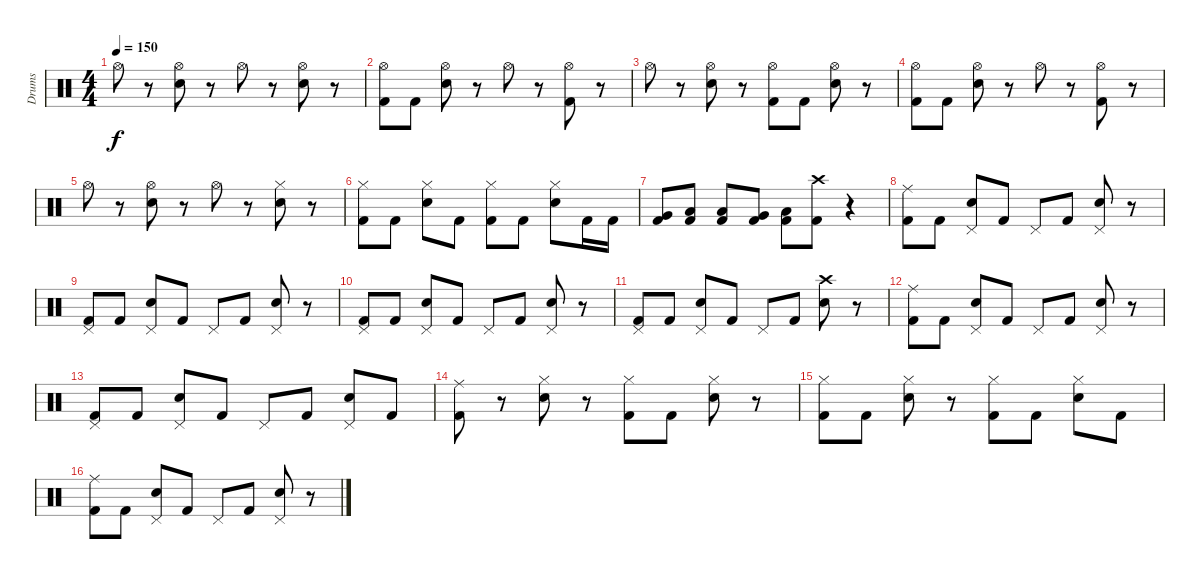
\track ("Drums" "Drums") {instrument percussion}
\staff {score}
\articulation defaults
\ts (4 4)
\tempo 150
\clef neutral
\ks c "Hi-Hat (open)".8{dy f}
r.8 ("Hi-Hat (open)" "Electric Snare (hit)").8 r.8 "Hi-Hat (open)".8 r.8 ("Hi-Hat (open)" "Electric Snare (hit)").8 r.8 |
("Hi-Hat (open)" "Kick (hit) 2").8 "Kick (hit) 2".8 ("Hi-Hat (open)" "Electric Snare (hit)").8 r.8 "Hi-Hat (open)".8 r.8 ("Hi-Hat (open)" "Kick (hit) 2").8 r.8 |
"Hi-Hat (open)".8 r.8 ("Hi-Hat (open)" "Electric Snare (hit)").8 r.8 ("Hi-Hat (open)" "Kick (hit) 2").8 "Kick (hit) 2".8 ("Hi-Hat (open)" "Electric Snare (hit)").8 r.8 |
("Hi-Hat (open)" "Kick (hit) 2").8 "Kick (hit) 2".8 ("Hi-Hat (open)" "Electric Snare (hit)").8 r.8 "Hi-Hat (open)".8 r.8 ("Hi-Hat (open)" "Kick (hit) 2").8 r.8 |
"Hi-Hat (open)".8 r.8 ("Hi-Hat (open)" "Electric Snare (hit)").8 r.8 "Hi-Hat (open)".8 r.8 ("Hi-Hat (closed)" "Electric Snare (hit)").8 r.8 |
("Hi-Hat (closed)" "Kick (hit) 2").8 "Kick (hit) 2".8 ("Hi-Hat (closed)" "Electric Snare (hit)").8 "Kick (hit) 2".8 ("Hi-Hat (closed)" "Kick (hit) 2").8 "Kick (hit) 2".8 ("Hi-Hat (closed)" "Electric Snare (hit)").8 "Kick (hit) 2".16 "Kick (hit) 2".16 |
("Very Low Tom (hit)" "Kick (hit) 2").8 ("Low Floor Tom (hit)" "Kick (hit) 2").8 ("Low Floor Tom (hit)" "Kick (hit) 2").8 ("Very Low Tom (hit)" "Kick (hit) 2").8 ("Low Floor Tom (hit)" "Kick (hit) 2").8 ("Crash high (hit)" "Kick (hit) 2").8 r.4 |
("Ride (middle)" "Kick (hit) 2").8 "Kick (hit) 2".8 ("Pedal Hi-Hat (hit)" "Electric Snare (hit)").8 "Kick (hit) 2".8 "Pedal Hi-Hat (hit)".8 "Kick (hit) 2".8 ("Pedal Hi-Hat (hit)" "Electric Snare (hit)").8 r.8 |
("Pedal Hi-Hat (hit)" "Kick (hit) 2").8 "Kick (hit) 2".8 ("Pedal Hi-Hat (hit)" "Electric Snare (hit)").8 "Kick (hit) 2".8 "Pedal Hi-Hat (hit)".8 "Kick (hit) 2".8 ("Pedal Hi-Hat (hit)" "Electric Snare (hit)").8 r.8 |
("Pedal Hi-Hat (hit)" "Kick (hit) 2").8 "Kick (hit) 2".8 ("Pedal Hi-Hat (hit)" "Electric Snare (hit)").8 "Kick (hit) 2".8 "Pedal Hi-Hat (hit)".8 "Kick (hit) 2".8 ("Pedal Hi-Hat (hit)" "Electric Snare (hit)").8 r.8 |
("Pedal Hi-Hat (hit)" "Kick (hit) 2").8 "Kick (hit) 2".8 ("Pedal Hi-Hat (hit)" "Electric Snare (hit)").8 "Kick (hit) 2".8 "Pedal Hi-Hat (hit)".8 "Kick (hit) 2".8 ("Crash high (hit)" "Electric Snare (hit)").8 r.8 |
("Ride (middle)" "Kick (hit) 2").8 "Kick (hit) 2".8 ("Pedal Hi-Hat (hit)" "Electric Snare (hit)").8 "Kick (hit) 2".8 "Pedal Hi-Hat (hit)".8 "Kick (hit) 2".8 ("Pedal Hi-Hat (hit)" "Electric Snare (hit)").8 r.8 |
("Pedal Hi-Hat (hit)" "Kick (hit) 2").8 "Kick (hit) 2".8 ("Pedal Hi-Hat (hit)" "Electric Snare (hit)").8 "Kick (hit) 2".8 "Pedal Hi-Hat (hit)".8 "Kick (hit) 2".8 ("Pedal Hi-Hat (hit)" "Electric Snare (hit)").8 "Kick (hit) 2".8 |
("Ride (middle)" "Kick (hit) 2").8 r.8 ("Hi-Hat (closed)" "Electric Snare (hit)").8 r.8 ("Hi-Hat (closed)" "Kick (hit) 2").8 "Kick (hit) 2".8 ("Hi-Hat (closed)" "Electric Snare (hit)").8 r.8 |
("Hi-Hat (closed)" "Kick (hit) 2").8 "Kick (hit) 2".8 ("Hi-Hat (closed)" "Electric Snare (hit)").8 r.8 ("Hi-Hat (closed)" "Kick (hit) 2").8 "Kick (hit) 2".8 ("Hi-Hat (closed)" "Electric Snare (hit)").8 "Kick (hit) 2".8 |
("Ride (middle)" "Kick (hit) 2").8 "Kick (hit) 2".8 ("Pedal Hi-Hat (hit)" "Electric Snare (hit)").8 "Kick (hit) 2".8 "Pedal Hi-Hat (hit)".8 "Kick (hit) 2".8 ("Pedal Hi-Hat (hit)" "Electric Snare (hit)").8 r.8
